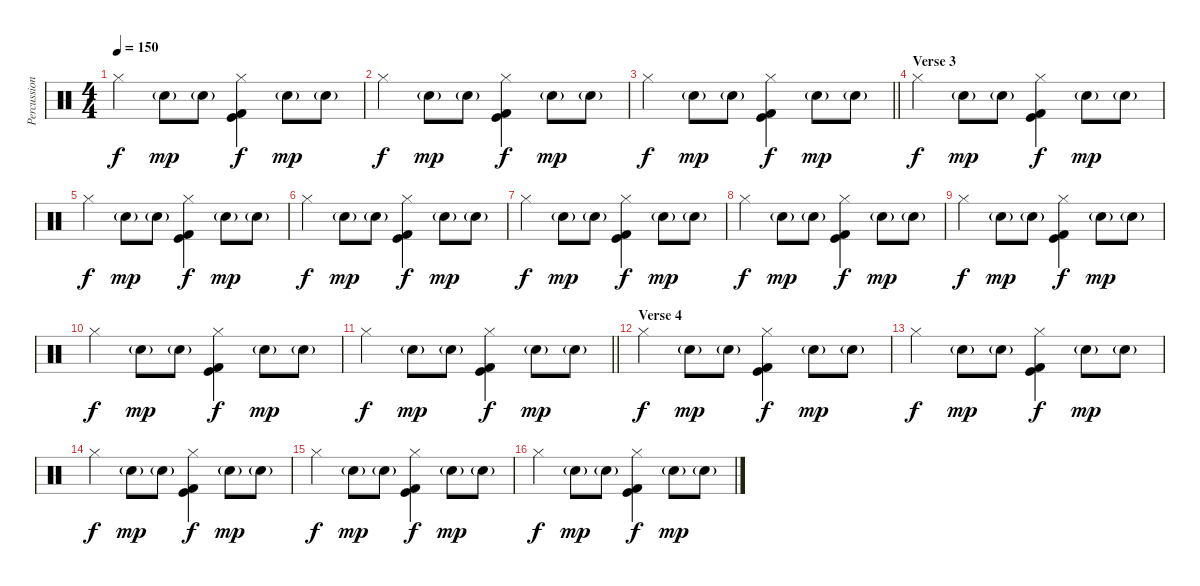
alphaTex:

\track ("Percussion" "Percussion") {instrument percussion}
\staff {score}
\articulation defaults
\ts (4 4)
\tempo 150
\clef neutral
\ks c "Hi-Hat (closed)".4{dy f} "Hand Clap (hit)"{g}.8{dy mp} "Hand Clap (hit)"{g}.8
("Hi-Hat (closed)" "Kick (hit)" "Kick (hit) 2").4{dy f} "Hand Clap (hit)"{g}.8{dy mp} "Hand Clap (hit)"{g}.8 |
"Hi-Hat (closed)".4{dy f} "Hand Clap (hit)"{g}.8{dy mp} "Hand Clap (hit)"{g}.8 ("Hi-Hat (closed)" "Kick (hit)" "Kick (hit) 2").4{dy f} "Hand Clap (hit)"{g}.8{dy mp} "Hand Clap (hit)"{g}.8 |
\barLineRight lightlight "Hi-Hat (closed)".4{dy f} "Hand Clap (hit)"{g}.8{dy mp} "Hand Clap (hit)"{g}.8
("Hi-Hat (closed)" "Kick (hit)" "Kick (hit) 2").4{dy f} "Hand Clap (hit)"{g}.8{dy mp} "Hand Clap (hit)"{g}.8 |
\section ("" "Verse 3")
"Hi-Hat (closed)".4{dy f} "Hand Clap (hit)"{g}.8{dy mp} "Hand Clap (hit)"{g}.8 ("Hi-Hat (closed)" "Kick (hit)" "Kick (hit) 2").4{dy f} "Hand Clap (hit)"{g}.8{dy mp} "Hand Clap (hit)"{g}.8 |
"Hi-Hat (closed)".4{dy f} "Hand Clap (hit)"{g}.8{dy mp} "Hand Clap (hit)"{g}.8 ("Hi-Hat (closed)" "Kick (hit)" "Kick (hit) 2").4{dy f} "Hand Clap (hit)"{g}.8{dy mp} "Hand Clap (hit)"{g}.8 |
"Hi-Hat (closed)".4{dy f} "Hand Clap (hit)"{g}.8{dy mp} "Hand Clap (hit)"{g}.8 ("Hi-Hat (closed)" "Kick (hit)" "Kick (hit) 2").4{dy f} "Hand Clap (hit)"{g}.8{dy mp} "Hand Clap (hit)"{g}.8 |
"Hi-Hat (closed)".4{dy f} "Hand Clap (hit)"{g}.8{dy mp} "Hand Clap (hit)"{g}.8 ("Hi-Hat (closed)" "Kick (hit)" "Kick (hit) 2").4{dy f} "Hand Clap (hit)"{g}.8{dy mp} "Hand Clap (hit)"{g}.8 |
"Hi-Hat (closed)".4{dy f} "Hand Clap (hit)"{g}.8{dy mp} "Hand Clap (hit)"{g}.8 ("Hi-Hat (closed)" "Kick (hit)" "Kick (hit) 2").4{dy f} "Hand Clap (hit)"{g}.8{dy mp} "Hand Clap (hit)"{g}.8 |
"Hi-Hat (closed)".4{dy f} "Hand Clap (hit)"{g}.8{dy mp} "Hand Clap (hit)"{g}.8 ("Hi-Hat (closed)" "Kick (hit)" "Kick (hit) 2").4{dy f} "Hand Clap (hit)"{g}.8{dy mp} "Hand Clap (hit)"{g}.8 |
"Hi-Hat (closed)".4{dy f} "Hand Clap (hit)"{g}.8{dy mp} "Hand Clap (hit)"{g}.8 ("Hi-Hat (closed)" "Kick (hit)" "Kick (hit) 2").4{dy f} "Hand Clap (hit)"{g}.8{dy mp} "Hand Clap (hit)"{g}.8 |
\barLineRight lightlight "Hi-Hat (closed)".4{dy f} "Hand Clap (hit)"{g}.8{dy mp} "Hand Clap (hit)"{g}.8
("Hi-Hat (closed)" "Kick (hit)" "Kick (hit) 2").4{dy f} "Hand Clap (hit)"{g}.8{dy mp} "Hand Clap (hit)"{g}.8 |
\section ("" "Verse 4")
"Hi-Hat (closed)".4{dy f} "Hand Clap (hit)"{g}.8{dy mp} "Hand Clap (hit)"{g}.8 ("Hi-Hat (closed)" "Kick (hit)" "Kick (hit) 2").4{dy f} "Hand Clap (hit)"{g}.8{dy mp} "Hand Clap (hit)"{g}.8 |
"Hi-Hat (closed)".4{dy f} "Hand Clap (hit)"{g}.8{dy mp} "Hand Clap (hit)"{g}.8 ("Hi-Hat (closed)" "Kick (hit)" "Kick (hit) 2").4{dy f} "Hand Clap (hit)"{g}.8{dy mp} "Hand Clap (hit)"{g}.8 |
"Hi-Hat (closed)".4{dy f} "Hand Clap (hit)"{g}.8{dy mp} "Hand Clap (hit)"{g}.8 ("Hi-Hat (closed)" "Kick (hit)" "Kick (hit) 2").4{dy f} "Hand Clap (hit)"{g}.8{dy mp} "Hand Clap (hit)"{g}.8 |
"Hi-Hat (closed)".4{dy f} "Hand Clap (hit)"{g}.8{dy mp} "Hand Clap (hit)"{g}.8 ("Hi-Hat (closed)" "Kick (hit)" "Kick (hit) 2").4{dy f} "Hand Clap (hit)"{g}.8{dy mp} "Hand Clap (hit)"{g}.8 |
"Hi-Hat (closed)".4{dy f} "Hand Clap (hit)"{g}.8{dy mp} "Hand Clap (hit)"{g}.8 ("Hi-Hat (closed)" "Kick (hit)" "Kick (hit) 2").4{dy f} "Hand Clap (hit)"{g}.8{dy mp} "Hand Clap (hit)"{g}.8
